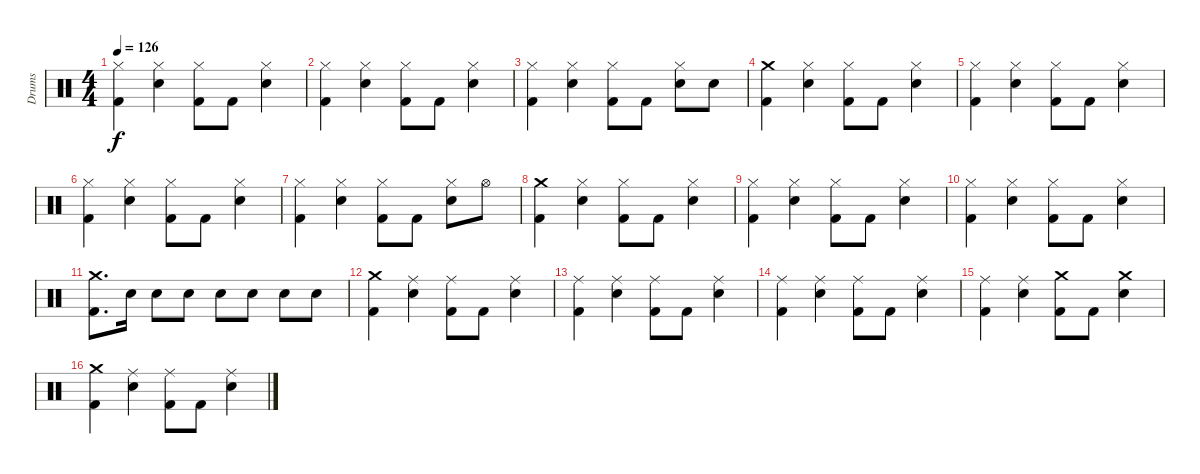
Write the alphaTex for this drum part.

\track ("Drums" "Drums") {instrument percussion}
\staff {score}
\articulation defaults
\ts (4 4)
\tempo 126
\clef neutral
\ks c
("Hi-Hat (closed)" "Kick (hit) 2").4{dy f} ("Hi-Hat (closed)" "Electric Snare (hit)").4 ("Hi-Hat (closed)" "Kick (hit) 2").8 "Kick (hit) 2".8 ("Hi-Hat (closed)" "Electric Snare (hit)").4 |
("Hi-Hat (closed)" "Kick (hit) 2").4 ("Hi-Hat (closed)" "Electric Snare (hit)").4 ("Hi-Hat (closed)" "Kick (hit) 2").8 "Kick (hit) 2".8 ("Hi-Hat (closed)" "Electric Snare (hit)").4 |
("Hi-Hat (closed)" "Kick (hit) 2").4 ("Hi-Hat (closed)" "Electric Snare (hit)").4 ("Hi-Hat (closed)" "Kick (hit) 2").8 "Kick (hit) 2".8 ("Hi-Hat (closed)" "Electric Snare (hit)").8 "Electric Snare (hit)".8 |
("Crash medium (hit)" "Kick (hit) 2").4 ("Hi-Hat (closed)" "Electric Snare (hit)").4 ("Hi-Hat (closed)" "Kick (hit) 2").8 "Kick (hit) 2".8 ("Hi-Hat (closed)" "Electric Snare (hit)").4 |
("Hi-Hat (closed)" "Kick (hit) 2").4 ("Hi-Hat (closed)" "Electric Snare (hit)").4 ("Hi-Hat (closed)" "Kick (hit) 2").8 "Kick (hit) 2".8 ("Hi-Hat (closed)" "Electric Snare (hit)").4 |
("Hi-Hat (closed)" "Kick (hit) 2").4 ("Hi-Hat (closed)" "Electric Snare (hit)").4 ("Hi-Hat (closed)" "Kick (hit) 2").8 "Kick (hit) 2".8 ("Hi-Hat (closed)" "Electric Snare (hit)").4 |
("Hi-Hat (closed)" "Kick (hit) 2").4 ("Hi-Hat (closed)" "Electric Snare (hit)").4 ("Hi-Hat (closed)" "Kick (hit) 2").8 "Kick (hit) 2".8 ("Hi-Hat (closed)" "Electric Snare (hit)").8 "Hi-Hat (open)".8 |
("Crash medium (hit)" "Kick (hit) 2").4 ("Hi-Hat (closed)" "Electric Snare (hit)").4 ("Hi-Hat (closed)" "Kick (hit) 2").8 "Kick (hit) 2".8 ("Hi-Hat (closed)" "Electric Snare (hit)").4 |
("Hi-Hat (closed)" "Kick (hit) 2").4 ("Hi-Hat (closed)" "Electric Snare (hit)").4 ("Hi-Hat (closed)" "Kick (hit) 2").8 "Kick (hit) 2".8 ("Hi-Hat (closed)" "Electric Snare (hit)").4 |
("Hi-Hat (closed)" "Kick (hit) 2").4 ("Hi-Hat (closed)" "Electric Snare (hit)").4 ("Hi-Hat (closed)" "Kick (hit) 2").8 "Kick (hit) 2".8 ("Hi-Hat (closed)" "Electric Snare (hit)").4 |
("Crash medium (hit)" "Kick (hit) 2").8{d} "Electric Snare (hit)".16 "Electric Snare (hit)".8 "Electric Snare (hit)".8 "Electric Snare (hit)".8 "Electric Snare (hit)".8 "Electric Snare (hit)".8 "Electric Snare (hit)".8 |
("Crash medium (hit)" "Kick (hit) 2").4 ("Ride (middle)" "Electric Snare (hit)").4 ("Ride (middle)" "Kick (hit) 2").8 "Kick (hit) 2".8 ("Ride (middle)" "Electric Snare (hit)").4 |
("Ride (middle)" "Kick (hit) 2").4 ("Ride (middle)" "Electric Snare (hit)").4 ("Ride (middle)" "Kick (hit) 2").8 "Kick (hit) 2".8 ("Ride (middle)" "Electric Snare (hit)").4 |
("Ride (middle)" "Kick (hit) 2").4 ("Ride (middle)" "Electric Snare (hit)").4 ("Ride (middle)" "Kick (hit) 2").8 "Kick (hit) 2".8 ("Ride (middle)" "Electric Snare (hit)").4 |
("Ride (middle)" "Kick (hit) 2").4 ("Ride (middle)" "Electric Snare (hit)").4 ("Crash medium (hit)" "Kick (hit) 2").8 "Kick (hit) 2".8 ("Crash medium (hit)" "Electric Snare (hit)").4 |
("Crash medium (hit)" "Kick (hit) 2").4 ("Ride (middle)" "Electric Snare (hit)").4 ("Ride (middle)" "Kick (hit) 2").8 "Kick (hit) 2".8 ("Ride (middle)" "Electric Snare (hit)").4
